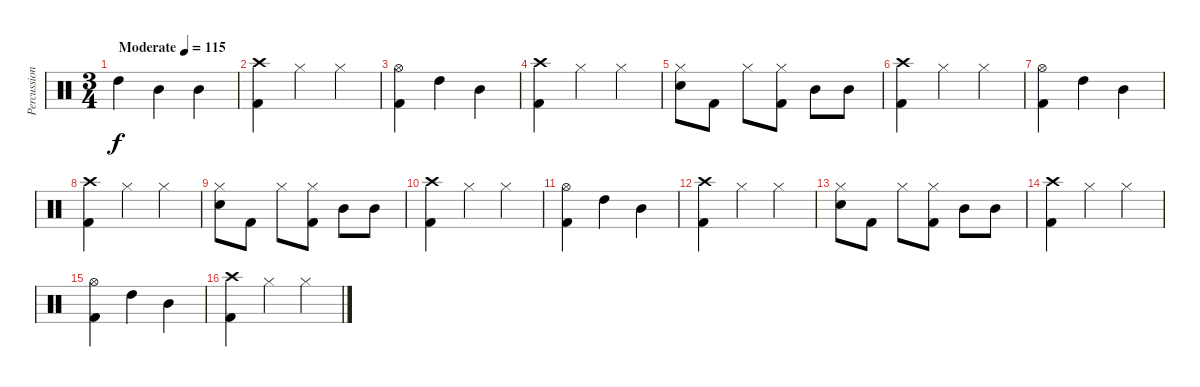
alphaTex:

\track ("Percussioni" "Percussion") {instrument percussion}
\staff {score}
\articulation defaults
\ts (3 4)
\tempo (115 "Moderate")
\clef neutral
\ks c "High Tom (hit)".4{dy f} "Mid Tom (hit)".4 "Mid Tom (hit)".4
|
("Crash high (hit)" "Kick (hit) 2").4 "Hi-Hat (closed)".4 "Hi-Hat (closed)".4 |
("Hi-Hat (open)" "Kick (hit) 2").4 "High Tom (hit)".4 "Mid Tom (hit)".4 |
("Crash high (hit)" "Kick (hit) 2").4 "Hi-Hat (closed)".4 "Hi-Hat (closed)".4 |
("Hi-Hat (closed)" "Snare (hit) 2").8 "Kick (hit) 2".8 "Hi-Hat (closed)".8 ("Hi-Hat (closed)" "Kick (hit) 2").8 "Mid Tom (hit)".8 "Mid Tom (hit)".8 |
("Crash high (hit)" "Kick (hit) 2").4 "Hi-Hat (closed)".4 "Hi-Hat (closed)".4 |
("Hi-Hat (open)" "Kick (hit) 2").4 "High Tom (hit)".4 "Mid Tom (hit)".4 |
("Crash high (hit)" "Kick (hit) 2").4 "Hi-Hat (closed)".4 "Hi-Hat (closed)".4 |
("Hi-Hat (closed)" "Snare (hit) 2").8 "Kick (hit) 2".8 "Hi-Hat (closed)".8 ("Hi-Hat (closed)" "Kick (hit) 2").8 "Mid Tom (hit)".8 "Mid Tom (hit)".8 |
("Crash high (hit)" "Kick (hit) 2").4 "Hi-Hat (closed)".4 "Hi-Hat (closed)".4 |
("Hi-Hat (open)" "Kick (hit) 2").4 "High Tom (hit)".4 "Mid Tom (hit)".4 |
("Crash high (hit)" "Kick (hit) 2").4 "Hi-Hat (closed)".4 "Hi-Hat (closed)".4 |
("Hi-Hat (closed)" "Snare (hit) 2").8 "Kick (hit) 2".8 "Hi-Hat (closed)".8 ("Hi-Hat (closed)" "Kick (hit) 2").8 "Mid Tom (hit)".8 "Mid Tom (hit)".8 |
("Crash high (hit)" "Kick (hit) 2").4 "Hi-Hat (closed)".4 "Hi-Hat (closed)".4 |
("Hi-Hat (open)" "Kick (hit) 2").4 "High Tom (hit)".4 "Mid Tom (hit)".4 |
("Crash high (hit)" "Kick (hit) 2").4 "Hi-Hat (closed)".4 "Hi-Hat (closed)".4
